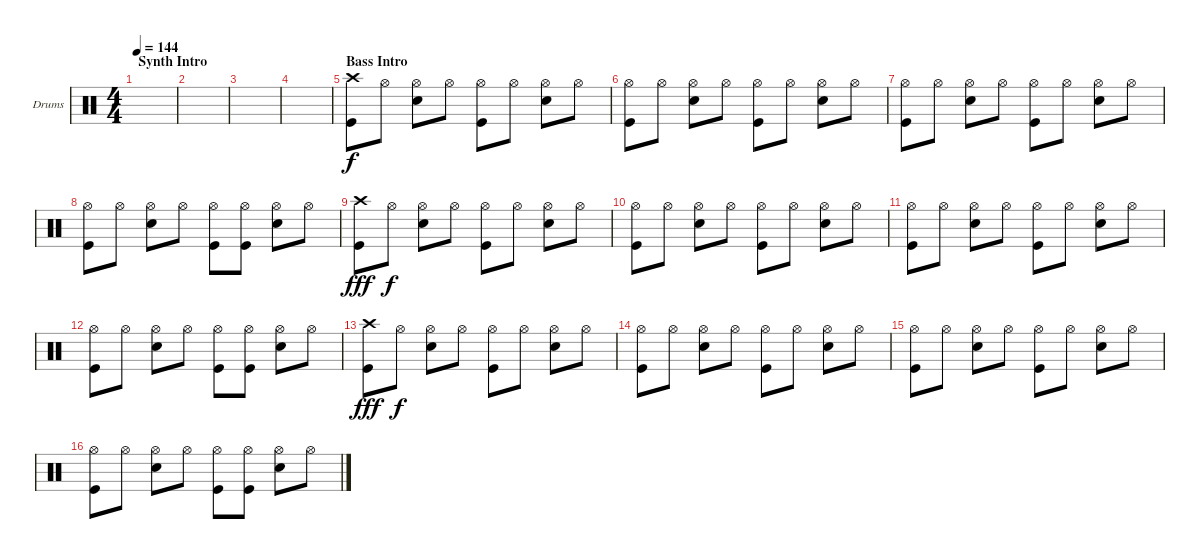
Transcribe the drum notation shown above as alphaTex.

\bracketExtendMode groupsimilarinstruments
\firstSystemTrackNameOrientation horizontal
\otherSystemsTrackNameOrientation horizontal
\track ("Drums" "Drums") {instrument percussion}
\staff {score}
\articulation defaults
\ts (4 4)
\section ("" "Synth Intro")
\tempo 144
\clef neutral
\ks c
|
|
|
|
\section ("" "Bass Intro")
("Crash high (hit)" "Kick (hit)").8 "Hi-Hat (open)".8{dy f} ("Hi-Hat (open)" "Snare (hit) 2").8 "Hi-Hat (open)".8 ("Hi-Hat (open)" "Kick (hit)").8 "Hi-Hat (open)".8 ("Hi-Hat (open)" "Snare (hit) 2").8 "Hi-Hat (open)".8 |
("Hi-Hat (open)" "Kick (hit)").8 "Hi-Hat (open)".8 ("Hi-Hat (open)" "Snare (hit) 2").8 "Hi-Hat (open)".8 ("Hi-Hat (open)" "Kick (hit)").8 "Hi-Hat (open)".8 ("Hi-Hat (open)" "Snare (hit) 2").8 "Hi-Hat (open)".8 |
("Hi-Hat (open)" "Kick (hit)").8 "Hi-Hat (open)".8 ("Hi-Hat (open)" "Snare (hit) 2").8 "Hi-Hat (open)".8 ("Hi-Hat (open)" "Kick (hit)").8 "Hi-Hat (open)".8 ("Hi-Hat (open)" "Snare (hit) 2").8 "Hi-Hat (open)".8 |
("Hi-Hat (open)" "Kick (hit)").8 "Hi-Hat (open)".8 ("Hi-Hat (open)" "Snare (hit) 2").8 "Hi-Hat (open)".8 ("Hi-Hat (open)" "Kick (hit)").8 ("Hi-Hat (open)" "Kick (hit)").8 ("Hi-Hat (open)" "Snare (hit) 2").8 "Hi-Hat (open)".8 |
("Crash high (hit)" "Kick (hit)").8{dy fff} "Hi-Hat (open)".8{dy f} ("Hi-Hat (open)" "Snare (hit) 2").8 "Hi-Hat (open)".8 ("Hi-Hat (open)" "Kick (hit)").8 "Hi-Hat (open)".8 ("Hi-Hat (open)" "Snare (hit) 2").8 "Hi-Hat (open)".8 |
("Hi-Hat (open)" "Kick (hit)").8 "Hi-Hat (open)".8 ("Hi-Hat (open)" "Snare (hit) 2").8 "Hi-Hat (open)".8 ("Hi-Hat (open)" "Kick (hit)").8 "Hi-Hat (open)".8 ("Hi-Hat (open)" "Snare (hit) 2").8 "Hi-Hat (open)".8 |
("Hi-Hat (open)" "Kick (hit)").8 "Hi-Hat (open)".8 ("Hi-Hat (open)" "Snare (hit) 2").8 "Hi-Hat (open)".8 ("Hi-Hat (open)" "Kick (hit)").8 "Hi-Hat (open)".8 ("Hi-Hat (open)" "Snare (hit) 2").8 "Hi-Hat (open)".8 |
("Hi-Hat (open)" "Kick (hit)").8 "Hi-Hat (open)".8 ("Hi-Hat (open)" "Snare (hit) 2").8 "Hi-Hat (open)".8 ("Hi-Hat (open)" "Kick (hit)").8 ("Hi-Hat (open)" "Kick (hit)").8 ("Hi-Hat (open)" "Snare (hit) 2").8 "Hi-Hat (open)".8 |
("Crash high (hit)" "Kick (hit)").8{dy fff} "Hi-Hat (open)".8{dy f} ("Hi-Hat (open)" "Snare (hit) 2").8 "Hi-Hat (open)".8 ("Hi-Hat (open)" "Kick (hit)").8 "Hi-Hat (open)".8 ("Hi-Hat (open)" "Snare (hit) 2").8 "Hi-Hat (open)".8 |
("Hi-Hat (open)" "Kick (hit)").8 "Hi-Hat (open)".8 ("Hi-Hat (open)" "Snare (hit) 2").8 "Hi-Hat (open)".8 ("Hi-Hat (open)" "Kick (hit)").8 "Hi-Hat (open)".8 ("Hi-Hat (open)" "Snare (hit) 2").8 "Hi-Hat (open)".8 |
("Hi-Hat (open)" "Kick (hit)").8 "Hi-Hat (open)".8 ("Hi-Hat (open)" "Snare (hit) 2").8 "Hi-Hat (open)".8 ("Hi-Hat (open)" "Kick (hit)").8 "Hi-Hat (open)".8 ("Hi-Hat (open)" "Snare (hit) 2").8 "Hi-Hat (open)".8 |
("Hi-Hat (open)" "Kick (hit)").8 "Hi-Hat (open)".8 ("Hi-Hat (open)" "Snare (hit) 2").8 "Hi-Hat (open)".8 ("Hi-Hat (open)" "Kick (hit)").8 ("Hi-Hat (open)" "Kick (hit)").8 ("Hi-Hat (open)" "Snare (hit) 2").8 "Hi-Hat (open)".8
